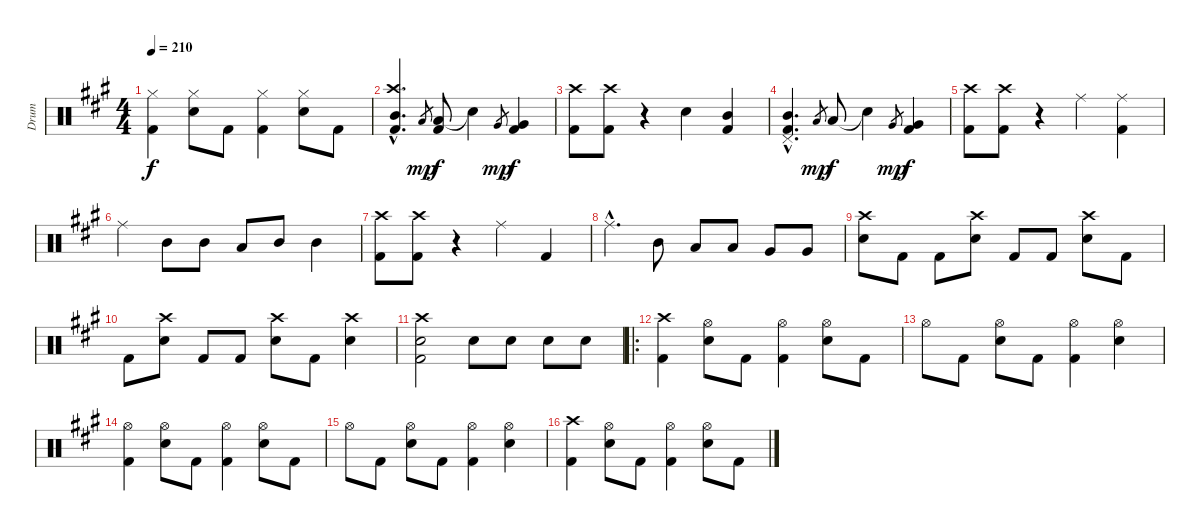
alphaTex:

\track ("Drum" "Drum") {instrument percussion}
\staff {score}
\articulation defaults
\ts (4 4)
\tempo 210
\clef neutral
\ks a
("Hi-Hat (closed)" "Kick (hit) 2").4{dy f} ("Hi-Hat (closed)" "Electric Snare (hit)").8 "Kick (hit) 2".8 ("Hi-Hat (closed)" "Kick (hit) 2").4 ("Hi-Hat (closed)" "Electric Snare (hit)").8 "Kick (hit) 2".8 |
("Crash high (hit)"{hac} "Mid Tom (hit)"{hac} "Kick (hit) 2"{hac}).4{d} "Low Tom (hit)".8{gr dy mp} ("Low Tom (hit)" "Kick (hit) 2").8{dy f} "Snare (hit)"{t}.4 "Very Low Tom (hit)".8{gr dy mp} ("Very Low Tom (hit)" "Kick (hit) 2").4{dy f} |
("Crash high (hit)" "Kick (hit) 2").8 ("Crash high (hit)" "Kick (hit) 2").8 r.4 "Electric Snare (hit)".4 ("Mid Tom (hit)" "Kick (hit) 2").4 |
("Pedal Hi-Hat (hit)"{hac} "Mid Tom (hit)"{hac} "Kick (hit) 2"{hac}).4{d} "Low Tom (hit)".8{gr dy mp} "Low Tom (hit)".8{dy f} "Snare (hit)"{t}.4 "Very Low Tom (hit)".8{gr dy mp} ("Very Low Tom (hit)" "Kick (hit) 2").4{dy f} |
("Crash high (hit)" "Kick (hit) 2").8 ("Crash high (hit)" "Kick (hit) 2").8 r.4 "Ride (middle)".4 ("Ride (middle)" "Kick (hit) 2").4 |
"Ride (middle)".4 "Mid Tom (hit)".8 "Mid Tom (hit)".8 "Low Tom (hit)".8 "Mid Tom (hit)".8 "Mid Tom (hit)".4 |
("Crash high (hit)" "Kick (hit) 2").8 ("Crash high (hit)" "Kick (hit) 2").8 r.4 "Ride (middle)".4 "Kick (hit) 2".4 |
"Ride (middle)"{hac}.4{d} "Mid Tom (hit)".8 "Low Tom (hit)".8 "Low Tom (hit)".8 "Very Low Tom (hit)".8 "Very Low Tom (hit)".8 |
("Crash high (hit)" "Electric Snare (hit)").8 "Kick (hit) 2".8 "Kick (hit) 2".8 ("Crash high (hit)" "Electric Snare (hit)").8 "Kick (hit) 2".8 "Kick (hit) 2".8 ("Crash high (hit)" "Electric Snare (hit)").8 "Kick (hit) 2".8 |
"Kick (hit) 2".8 ("Crash high (hit)" "Electric Snare (hit)").8 "Kick (hit) 2".8 "Kick (hit) 2".8 ("Crash high (hit)" "Electric Snare (hit)").8 "Kick (hit) 2".8 ("Crash high (hit)" "Electric Snare (hit)").4 |
("Crash high (hit)" "Electric Snare (hit)" "Kick (hit) 2").2 "Electric Snare (hit)".8 "Electric Snare (hit)".8 "Electric Snare (hit)".8 "Electric Snare (hit)".8 |
\ro
("Crash high (hit)" "Kick (hit) 2").4 ("Hi-Hat (open)" "Electric Snare (hit)").8 "Kick (hit) 2".8 ("Hi-Hat (open)" "Kick (hit) 2").4 ("Hi-Hat (open)" "Electric Snare (hit)").8 "Kick (hit) 2".8 |
"Hi-Hat (open)".8 "Kick (hit) 2".8 ("Hi-Hat (open)" "Electric Snare (hit)").8 "Kick (hit) 2".8 ("Hi-Hat (open)" "Kick (hit) 2").4 ("Hi-Hat (open)" "Electric Snare (hit)").4 |
("Hi-Hat (open)" "Kick (hit) 2").4 ("Hi-Hat (open)" "Electric Snare (hit)").8 "Kick (hit) 2".8 ("Hi-Hat (open)" "Kick (hit) 2").4 ("Hi-Hat (open)" "Electric Snare (hit)").8 "Kick (hit) 2".8 |
"Hi-Hat (open)".8 "Kick (hit) 2".8 ("Hi-Hat (open)" "Electric Snare (hit)").8 "Kick (hit) 2".8 ("Hi-Hat (open)" "Kick (hit) 2").4 ("Hi-Hat (open)" "Electric Snare (hit)").4 |
("Crash high (hit)" "Kick (hit) 2").4 ("Hi-Hat (open)" "Electric Snare (hit)").8 "Kick (hit) 2".8 ("Hi-Hat (open)" "Kick (hit) 2").4 ("Hi-Hat (open)" "Electric Snare (hit)").8 "Kick (hit) 2".8
